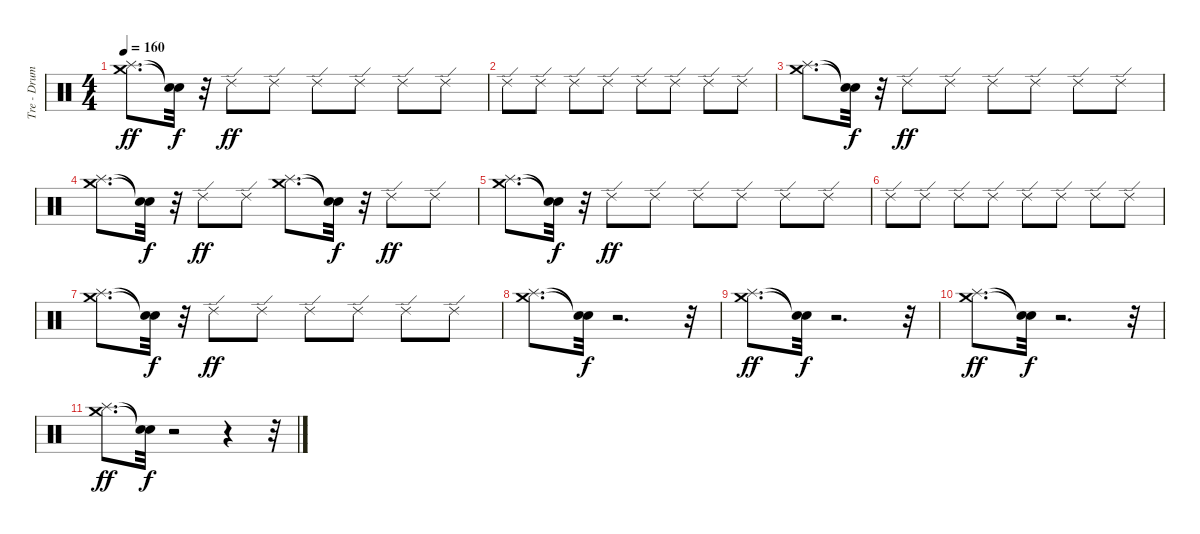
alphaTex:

\track ("Tre - Drums" "Tre - Drum") {instrument percussion}
\staff {score}
\articulation defaults
\ts (4 4)
\tempo 160
\clef neutral
\ks c
("Splash (hit)" "Crash medium (hit)").8{d dy ff} ("Snare (hit)"{t} "Snare (hit)"{t}).32{dy f} r.32 "Ride (edge) 2".8{dy ff} "Ride (edge) 2".8 "Ride (edge) 2".8 "Ride (edge) 2".8 "Ride (edge) 2".8 "Ride (edge) 2".8 |
"Ride (edge) 2".8 "Ride (edge) 2".8 "Ride (edge) 2".8 "Ride (edge) 2".8 "Ride (edge) 2".8 "Ride (edge) 2".8 "Ride (edge) 2".8 "Ride (edge) 2".8 |
("Splash (hit)" "Crash medium (hit)").8{d} ("Snare (hit)"{t} "Snare (hit)"{t}).32{dy f} r.32 "Ride (edge) 2".8{dy ff} "Ride (edge) 2".8 "Ride (edge) 2".8 "Ride (edge) 2".8 "Ride (edge) 2".8 "Ride (edge) 2".8 |
("Splash (hit)" "Crash medium (hit)").8{d} ("Snare (hit)"{t} "Snare (hit)"{t}).32{dy f} r.32 "Ride (edge) 2".8{dy ff} "Ride (edge) 2".8 ("Splash (hit)" "Crash medium (hit)").8{d} ("Snare (hit)"{t} "Snare (hit)"{t}).32{dy f} r.32 "Ride (edge) 2".8{dy ff} "Ride (edge) 2".8 |
("Splash (hit)" "Crash medium (hit)").8{d} ("Snare (hit)"{t} "Snare (hit)"{t}).32{dy f} r.32 "Ride (edge) 2".8{dy ff} "Ride (edge) 2".8 "Ride (edge) 2".8 "Ride (edge) 2".8 "Ride (edge) 2".8 "Ride (edge) 2".8 |
"Ride (edge) 2".8 "Ride (edge) 2".8 "Ride (edge) 2".8 "Ride (edge) 2".8 "Ride (edge) 2".8 "Ride (edge) 2".8 "Ride (edge) 2".8 "Ride (edge) 2".8 |
("Splash (hit)" "Crash medium (hit)").8{d} ("Snare (hit)"{t} "Snare (hit)"{t}).32{dy f} r.32 "Ride (edge) 2".8{dy ff} "Ride (edge) 2".8 "Ride (edge) 2".8 "Ride (edge) 2".8 "Ride (edge) 2".8 "Ride (edge) 2".8 |
("Splash (hit)" "Crash medium (hit)").8{d} ("Snare (hit)"{t} "Snare (hit)"{t}).32{dy f} r.2{d} r.32 |
("Splash (hit)" "Crash medium (hit)").8{d dy ff} ("Snare (hit)"{t} "Snare (hit)"{t}).32{dy f} r.2{d} r.32 |
("Splash (hit)" "Crash medium (hit)").8{d dy ff} ("Snare (hit)"{t} "Snare (hit)"{t}).32{dy f} r.2{d} r.32 |
("Splash (hit)" "Crash medium (hit)").8{d dy ff} ("Snare (hit)"{t} "Snare (hit)"{t}).32{dy f} r.2 r.4 r.32
